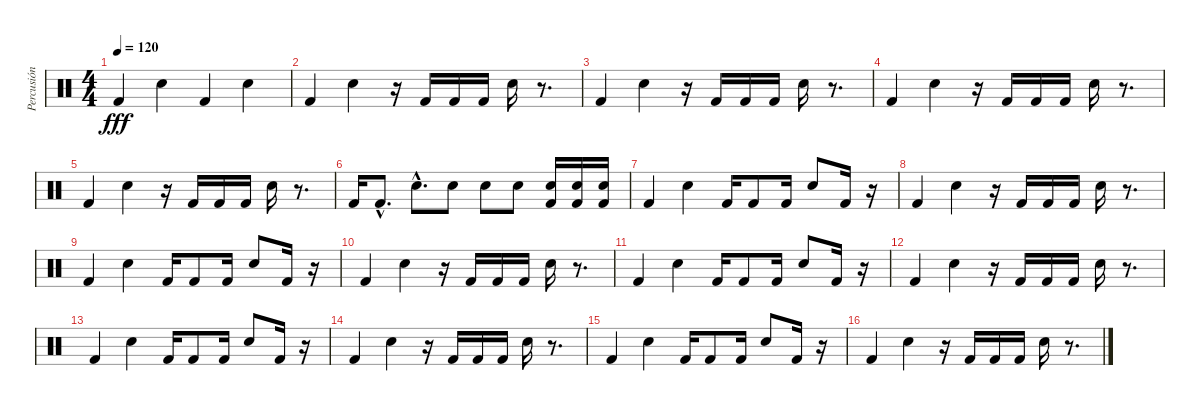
\track ("Percusión" "Percusión") {instrument percussion}
\staff {score}
\articulation defaults
\ts (4 4)
\tempo 120
\clef neutral
\ks c "Kick (hit) 2".4{dy fff} "Snare (hit) 2".4 "Kick (hit) 2".4 "Snare (hit) 2".4
|
"Kick (hit) 2".4 "Snare (hit) 2".4 r.16 "Kick (hit) 2".16 "Kick (hit) 2".16 "Kick (hit) 2".16 "Snare (hit) 2".16 r.8{d} |
"Kick (hit) 2".4 "Snare (hit) 2".4 r.16 "Kick (hit) 2".16 "Kick (hit) 2".16 "Kick (hit) 2".16 "Snare (hit) 2".16 r.8{d} |
"Kick (hit) 2".4 "Snare (hit) 2".4 r.16 "Kick (hit) 2".16 "Kick (hit) 2".16 "Kick (hit) 2".16 "Snare (hit) 2".16 r.8{d} |
"Kick (hit) 2".4 "Snare (hit) 2".4 r.16 "Kick (hit) 2".16 "Kick (hit) 2".16 "Kick (hit) 2".16 "Snare (hit) 2".16 r.8{d} |
"Kick (hit) 2".16 "Kick (hit) 2"{hac}.8{d} "Snare (hit) 2"{hac}.8{d} "Snare (hit) 2".8 "Snare (hit) 2".8 "Snare (hit) 2".8 ("Snare (hit) 2" "Kick (hit) 2").16 ("Snare (hit) 2" "Kick (hit) 2").16 ("Snare (hit) 2" "Kick (hit) 2").16 |
"Kick (hit) 2".4 "Snare (hit) 2".4 "Kick (hit) 2".16 "Kick (hit) 2".8 "Kick (hit) 2".16 "Snare (hit) 2".8 "Kick (hit) 2".16 r.16 |
"Kick (hit) 2".4 "Snare (hit) 2".4 r.16 "Kick (hit) 2".16 "Kick (hit) 2".16 "Kick (hit) 2".16 "Snare (hit) 2".16 r.8{d} |
"Kick (hit) 2".4 "Snare (hit) 2".4 "Kick (hit) 2".16 "Kick (hit) 2".8 "Kick (hit) 2".16 "Snare (hit) 2".8 "Kick (hit) 2".16 r.16 |
"Kick (hit) 2".4 "Snare (hit) 2".4 r.16 "Kick (hit) 2".16 "Kick (hit) 2".16 "Kick (hit) 2".16 "Snare (hit) 2".16 r.8{d} |
"Kick (hit) 2".4 "Snare (hit) 2".4 "Kick (hit) 2".16 "Kick (hit) 2".8 "Kick (hit) 2".16 "Snare (hit) 2".8 "Kick (hit) 2".16 r.16 |
"Kick (hit) 2".4 "Snare (hit) 2".4 r.16 "Kick (hit) 2".16 "Kick (hit) 2".16 "Kick (hit) 2".16 "Snare (hit) 2".16 r.8{d} |
"Kick (hit) 2".4 "Snare (hit) 2".4 "Kick (hit) 2".16 "Kick (hit) 2".8 "Kick (hit) 2".16 "Snare (hit) 2".8 "Kick (hit) 2".16 r.16 |
"Kick (hit) 2".4 "Snare (hit) 2".4 r.16 "Kick (hit) 2".16 "Kick (hit) 2".16 "Kick (hit) 2".16 "Snare (hit) 2".16 r.8{d} |
"Kick (hit) 2".4 "Snare (hit) 2".4 "Kick (hit) 2".16 "Kick (hit) 2".8 "Kick (hit) 2".16 "Snare (hit) 2".8 "Kick (hit) 2".16 r.16 |
"Kick (hit) 2".4 "Snare (hit) 2".4 r.16 "Kick (hit) 2".16 "Kick (hit) 2".16 "Kick (hit) 2".16 "Snare (hit) 2".16 r.8{d}
